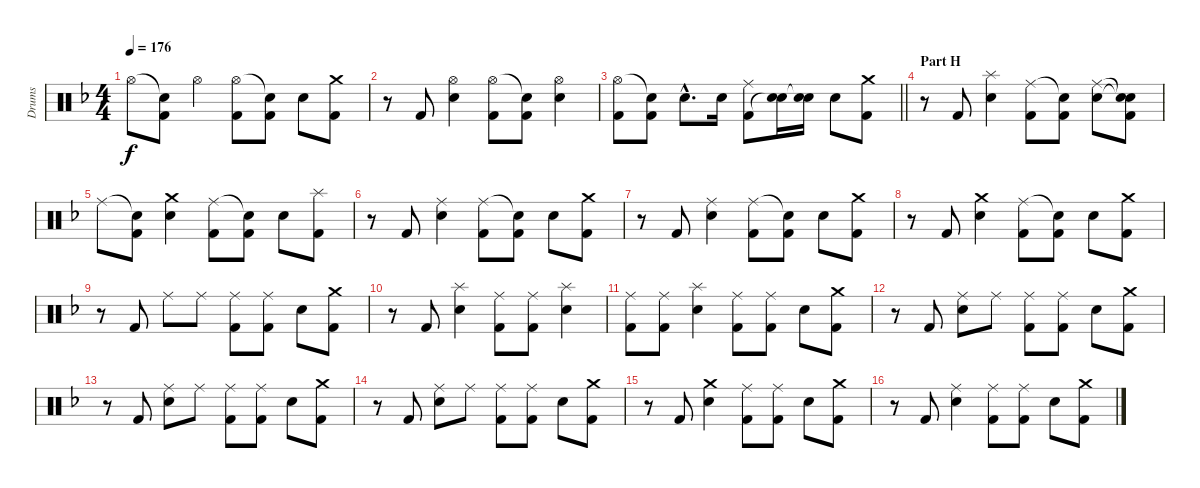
\track ("Drums" "Drums") {instrument percussion}
\staff {score}
\articulation defaults
\ts (4 4)
\tempo 176
\clef neutral
\ks f "Hi-Hat (open)".8{dy f}
("Snare (hit)"{t} "Kick (hit) 2").8 "Hi-Hat (open)".4 ("Hi-Hat (open)" "Kick (hit) 2").8 ("Snare (hit)"{t} "Kick (hit) 2").8 "Electric Snare (hit)".8 ("Crash medium (hit)" "Kick (hit) 2").8 |
r.8 "Kick (hit) 2".8 ("Hi-Hat (open)" "Electric Snare (hit)").4 ("Hi-Hat (open)" "Kick (hit) 2").8 ("Snare (hit)"{t} "Kick (hit) 2").8 ("Hi-Hat (open)" "Electric Snare (hit)").4 |
\barLineRight lightlight
("Hi-Hat (open)" "Kick (hit) 2").8 ("Snare (hit)"{t} "Kick (hit) 2").8 "Electric Snare (hit)"{hac}.8{d} "Electric Snare (hit)".16 ("Ride (middle)" "Kick (hit) 2").8 ("Electric Snare (hit)" "Snare (hit)"{t}).16 ("Electric Snare (hit)" "Snare (hit)"{t}).16 "Electric Snare (hit)".8 ("Crash medium (hit)" "Kick (hit) 2").8 |
\section ("" "Part H")
r.8 "Kick (hit) 2".8 ("Splash (hit)" "Electric Snare (hit)").4 ("Ride (middle)" "Kick (hit) 2").8 ("Snare (hit)"{t} "Kick (hit) 2").8 ("Ride (middle)" "Electric Snare (hit)").8 ("Snare (hit)"{t} "Snare (hit)"{t} "Kick (hit) 2").8 |
"Ride (middle)".8 ("Snare (hit)"{t} "Kick (hit) 2").8 ("Crash medium (hit)" "Electric Snare (hit)").4 ("Ride (middle)" "Kick (hit) 2").8 ("Snare (hit)"{t} "Kick (hit) 2").8 "Electric Snare (hit)".8 ("Splash (hit)" "Kick (hit) 2").8 |
r.8 "Kick (hit) 2".8 ("Ride (middle)" "Electric Snare (hit)").4 ("Ride (middle)" "Kick (hit) 2").8 ("Snare (hit)"{t} "Kick (hit) 2").8 "Electric Snare (hit)".8 ("Crash medium (hit)" "Kick (hit) 2").8 |
r.8 "Kick (hit) 2".8 ("Ride (middle)" "Electric Snare (hit)").4 ("Ride (middle)" "Kick (hit) 2").8 ("Snare (hit)"{t} "Kick (hit) 2").8 "Electric Snare (hit)".8 ("Crash medium (hit)" "Kick (hit) 2").8 |
r.8 "Kick (hit) 2".8 ("Crash medium (hit)" "Electric Snare (hit)").4 ("Ride (middle)" "Kick (hit) 2").8 ("Snare (hit)"{t} "Kick (hit) 2").8 "Electric Snare (hit)".8 ("Crash medium (hit)" "Kick (hit) 2").8 |
r.8 "Kick (hit) 2".8 "Ride (middle)".8 "Ride (middle)".8 ("Ride (middle)" "Kick (hit) 2").8 ("Ride (middle)" "Kick (hit) 2").8 "Electric Snare (hit)".8 ("Crash medium (hit)" "Kick (hit) 2").8 |
r.8 "Kick (hit) 2".8 ("Splash (hit)" "Electric Snare (hit)").4 ("Ride (middle)" "Kick (hit) 2").8 ("Ride (middle)" "Kick (hit) 2").8 ("Splash (hit)" "Electric Snare (hit)").4 |
("Ride (middle)" "Kick (hit) 2").8 ("Ride (middle)" "Kick (hit) 2").8 ("Splash (hit)" "Electric Snare (hit)").4 ("Ride (middle)" "Kick (hit) 2").8 ("Ride (middle)" "Kick (hit) 2").8 "Electric Snare (hit)".8 ("Crash medium (hit)" "Kick (hit) 2").8 |
r.8 "Kick (hit) 2".8 ("Ride (middle)" "Electric Snare (hit)").8 "Ride (middle)".8 ("Ride (middle)" "Kick (hit) 2").8 ("Ride (middle)" "Kick (hit) 2").8 "Electric Snare (hit)".8 ("Crash medium (hit)" "Kick (hit) 2").8 |
r.8 "Kick (hit) 2".8 ("Ride (middle)" "Electric Snare (hit)").8 "Ride (middle)".8 ("Ride (middle)" "Kick (hit) 2").8 ("Ride (middle)" "Kick (hit) 2").8 "Electric Snare (hit)".8 ("Crash medium (hit)" "Kick (hit) 2").8 |
r.8 "Kick (hit) 2".8 ("Ride (middle)" "Electric Snare (hit)").8 "Ride (middle)".8 ("Ride (middle)" "Kick (hit) 2").8 ("Ride (middle)" "Kick (hit) 2").8 "Electric Snare (hit)".8 ("Crash medium (hit)" "Kick (hit) 2").8 |
r.8 "Kick (hit) 2".8 ("Crash medium (hit)" "Electric Snare (hit)").4 ("Ride (middle)" "Kick (hit) 2").8 ("Ride (middle)" "Kick (hit) 2").8 "Electric Snare (hit)".8 ("Crash medium (hit)" "Kick (hit) 2").8 |
r.8 "Kick (hit) 2".8 ("Ride (middle)" "Electric Snare (hit)").4 ("Ride (middle)" "Kick (hit) 2").8 ("Ride (middle)" "Kick (hit) 2").8 "Electric Snare (hit)".8 ("Crash medium (hit)" "Kick (hit) 2").8
